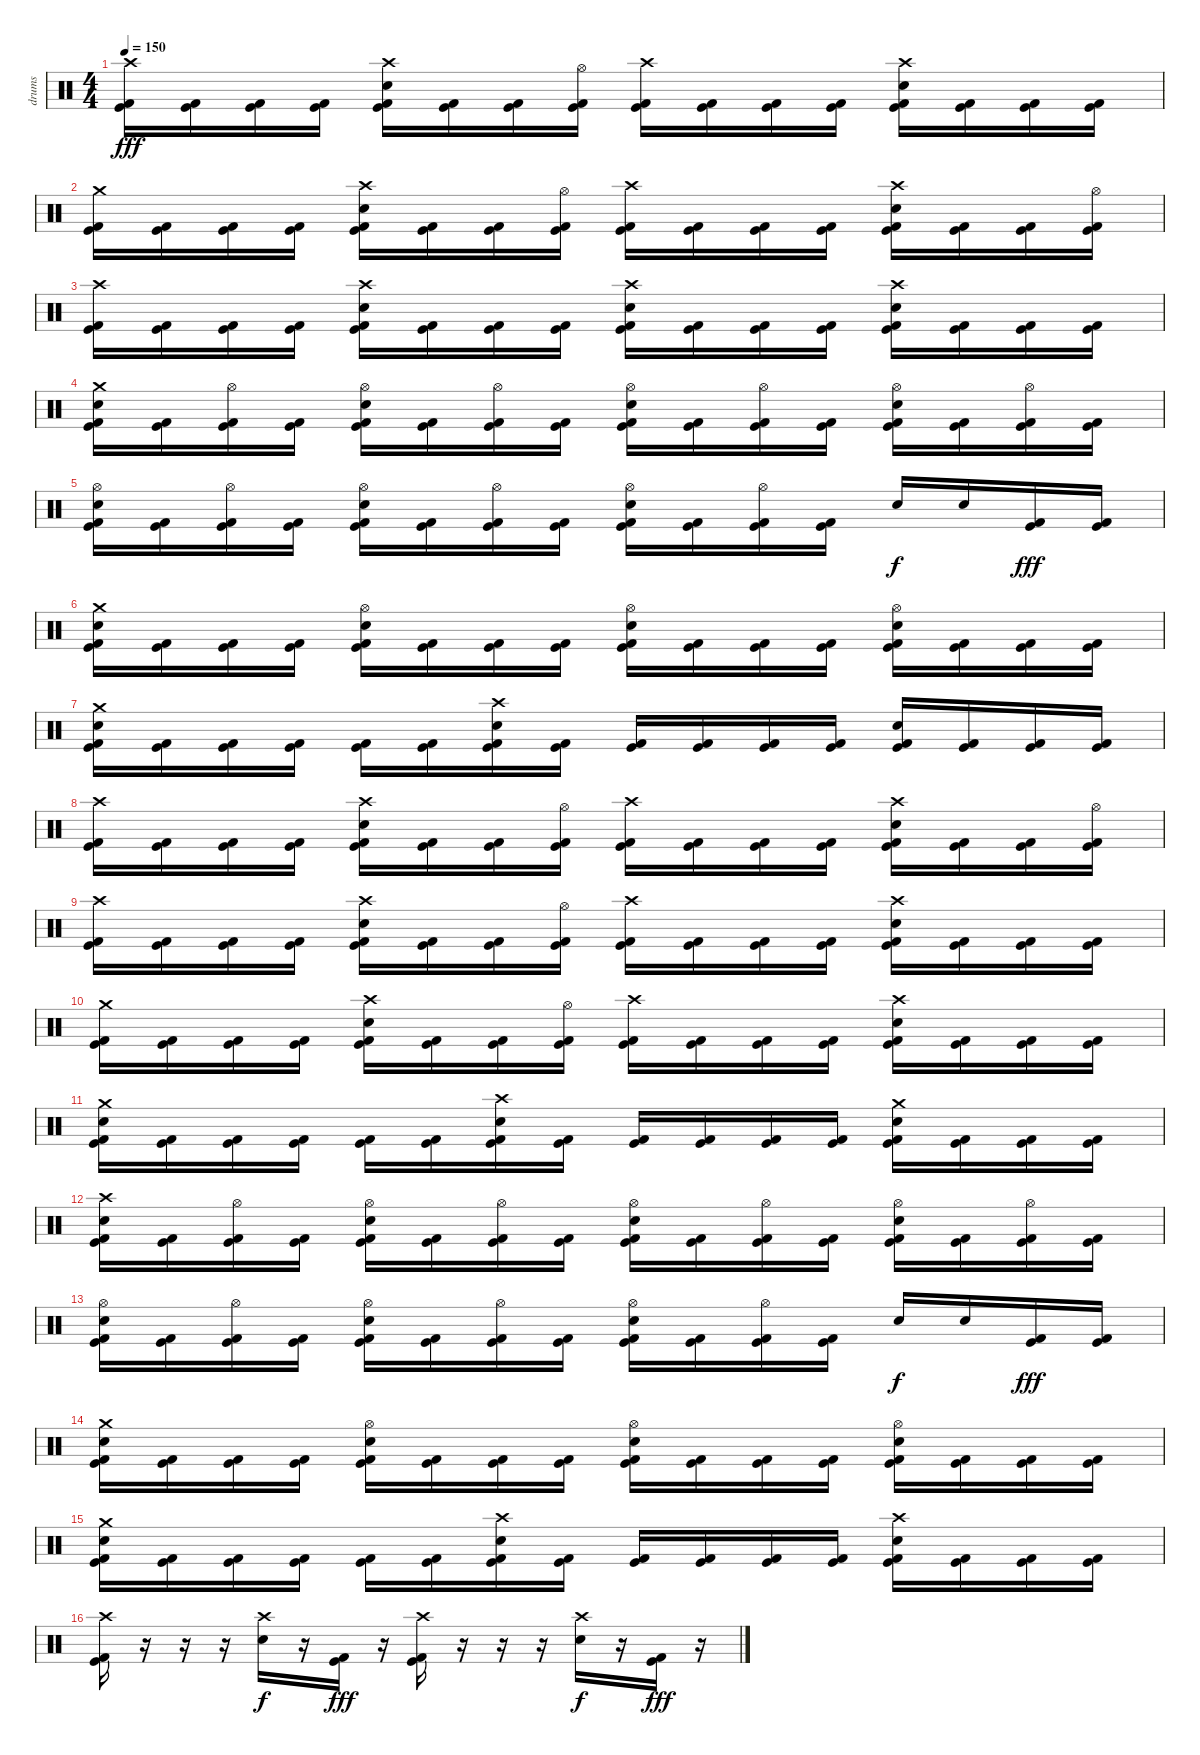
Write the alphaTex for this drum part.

\track ("drums" "drums") {instrument percussion}
\staff {score}
\articulation defaults
\ts (4 4)
\tempo 150
\clef neutral
\ks c
("Crash high (hit)" "Kick (hit)" "Kick (hit) 2").16{dy fff} ("Kick (hit)" "Kick (hit) 2").16 ("Kick (hit)" "Kick (hit) 2").16 ("Kick (hit)" "Kick (hit) 2").16 ("Crash high (hit)" "Electric Snare (hit)" "Kick (hit)" "Kick (hit) 2").16 ("Kick (hit)" "Kick (hit) 2").16 ("Kick (hit)" "Kick (hit) 2").16 ("Hi-Hat (open)" "Kick (hit)" "Kick (hit) 2").16 ("Crash high (hit)" "Kick (hit)" "Kick (hit) 2").16 ("Kick (hit)" "Kick (hit) 2").16 ("Kick (hit)" "Kick (hit) 2").16 ("Kick (hit)" "Kick (hit) 2").16 ("Crash high (hit)" "Electric Snare (hit)" "Kick (hit)" "Kick (hit) 2").16 ("Kick (hit)" "Kick (hit) 2").16 ("Kick (hit)" "Kick (hit) 2").16 ("Kick (hit)" "Kick (hit) 2").16 |
("Crash medium (hit)" "Kick (hit)" "Kick (hit) 2").16 ("Kick (hit)" "Kick (hit) 2").16 ("Kick (hit)" "Kick (hit) 2").16 ("Kick (hit)" "Kick (hit) 2").16 ("Crash high (hit)" "Electric Snare (hit)" "Kick (hit)" "Kick (hit) 2").16 ("Kick (hit)" "Kick (hit) 2").16 ("Kick (hit)" "Kick (hit) 2").16 ("Hi-Hat (open)" "Kick (hit)" "Kick (hit) 2").16 ("Crash high (hit)" "Kick (hit)" "Kick (hit) 2").16 ("Kick (hit)" "Kick (hit) 2").16 ("Kick (hit)" "Kick (hit) 2").16 ("Kick (hit)" "Kick (hit) 2").16 ("Crash high (hit)" "Electric Snare (hit)" "Kick (hit)" "Kick (hit) 2").16 ("Kick (hit)" "Kick (hit) 2").16 ("Kick (hit)" "Kick (hit) 2").16 ("Hi-Hat (open)" "Kick (hit)" "Kick (hit) 2").16 |
("Crash high (hit)" "Kick (hit)" "Kick (hit) 2").16 ("Kick (hit)" "Kick (hit) 2").16 ("Kick (hit)" "Kick (hit) 2").16 ("Kick (hit)" "Kick (hit) 2").16 ("Crash high (hit)" "Electric Snare (hit)" "Kick (hit)" "Kick (hit) 2").16 ("Kick (hit)" "Kick (hit) 2").16 ("Kick (hit)" "Kick (hit) 2").16 ("Kick (hit)" "Kick (hit) 2").16 ("Crash high (hit)" "Electric Snare (hit)" "Kick (hit)" "Kick (hit) 2").16 ("Kick (hit)" "Kick (hit) 2").16 ("Kick (hit)" "Kick (hit) 2").16 ("Kick (hit)" "Kick (hit) 2").16 ("Crash high (hit)" "Electric Snare (hit)" "Kick (hit)" "Kick (hit) 2").16 ("Kick (hit)" "Kick (hit) 2").16 ("Kick (hit)" "Kick (hit) 2").16 ("Kick (hit)" "Kick (hit) 2").16 |
("Crash medium (hit)" "Electric Snare (hit)" "Kick (hit)" "Kick (hit) 2").16 ("Kick (hit)" "Kick (hit) 2").16 ("Hi-Hat (open)" "Kick (hit)" "Kick (hit) 2").16 ("Kick (hit)" "Kick (hit) 2").16 ("Hi-Hat (open)" "Electric Snare (hit)" "Kick (hit)" "Kick (hit) 2").16 ("Kick (hit)" "Kick (hit) 2").16 ("Hi-Hat (open)" "Kick (hit)" "Kick (hit) 2").16 ("Kick (hit)" "Kick (hit) 2").16 ("Hi-Hat (open)" "Electric Snare (hit)" "Kick (hit)" "Kick (hit) 2").16 ("Kick (hit)" "Kick (hit) 2").16 ("Hi-Hat (open)" "Kick (hit)" "Kick (hit) 2").16 ("Kick (hit)" "Kick (hit) 2").16 ("Hi-Hat (open)" "Electric Snare (hit)" "Kick (hit)" "Kick (hit) 2").16 ("Kick (hit)" "Kick (hit) 2").16 ("Hi-Hat (open)" "Kick (hit)" "Kick (hit) 2").16 ("Kick (hit)" "Kick (hit) 2").16 |
("Hi-Hat (open)" "Electric Snare (hit)" "Kick (hit)" "Kick (hit) 2").16 ("Kick (hit)" "Kick (hit) 2").16 ("Hi-Hat (open)" "Kick (hit)" "Kick (hit) 2").16 ("Kick (hit)" "Kick (hit) 2").16 ("Hi-Hat (open)" "Electric Snare (hit)" "Kick (hit)" "Kick (hit) 2").16 ("Kick (hit)" "Kick (hit) 2").16 ("Hi-Hat (open)" "Kick (hit)" "Kick (hit) 2").16 ("Kick (hit)" "Kick (hit) 2").16 ("Hi-Hat (open)" "Electric Snare (hit)" "Kick (hit)" "Kick (hit) 2").16 ("Kick (hit)" "Kick (hit) 2").16 ("Hi-Hat (open)" "Kick (hit)" "Kick (hit) 2").16 ("Kick (hit)" "Kick (hit) 2").16 "Electric Snare (hit)".16{dy f} "Electric Snare (hit)".16 ("Kick (hit)" "Kick (hit) 2").16{dy fff} ("Kick (hit)" "Kick (hit) 2").16 |
("Crash medium (hit)" "Electric Snare (hit)" "Kick (hit)" "Kick (hit) 2").16 ("Kick (hit)" "Kick (hit) 2").16 ("Kick (hit)" "Kick (hit) 2").16 ("Kick (hit)" "Kick (hit) 2").16 ("Hi-Hat (open)" "Electric Snare (hit)" "Kick (hit)" "Kick (hit) 2").16 ("Kick (hit)" "Kick (hit) 2").16 ("Kick (hit)" "Kick (hit) 2").16 ("Kick (hit)" "Kick (hit) 2").16 ("Hi-Hat (open)" "Electric Snare (hit)" "Kick (hit)" "Kick (hit) 2").16 ("Kick (hit)" "Kick (hit) 2").16 ("Kick (hit)" "Kick (hit) 2").16 ("Kick (hit)" "Kick (hit) 2").16 ("Hi-Hat (open)" "Electric Snare (hit)" "Kick (hit)" "Kick (hit) 2").16 ("Kick (hit)" "Kick (hit) 2").16 ("Kick (hit)" "Kick (hit) 2").16 ("Kick (hit)" "Kick (hit) 2").16 |
("Crash medium (hit)" "Electric Snare (hit)" "Kick (hit)" "Kick (hit) 2").16 ("Kick (hit)" "Kick (hit) 2").16 ("Kick (hit)" "Kick (hit) 2").16 ("Kick (hit)" "Kick (hit) 2").16 ("Kick (hit)" "Kick (hit) 2").16 ("Kick (hit)" "Kick (hit) 2").16 ("Crash high (hit)" "Electric Snare (hit)" "Kick (hit)" "Kick (hit) 2").16 ("Kick (hit)" "Kick (hit) 2").16 ("Kick (hit)" "Kick (hit) 2").16 ("Kick (hit)" "Kick (hit) 2").16 ("Kick (hit)" "Kick (hit) 2").16 ("Kick (hit)" "Kick (hit) 2").16 ("Electric Snare (hit)" "Kick (hit)" "Kick (hit) 2").16 ("Kick (hit)" "Kick (hit) 2").16 ("Kick (hit)" "Kick (hit) 2").16 ("Kick (hit)" "Kick (hit) 2").16 |
("Crash high (hit)" "Kick (hit)" "Kick (hit) 2").16 ("Kick (hit)" "Kick (hit) 2").16 ("Kick (hit)" "Kick (hit) 2").16 ("Kick (hit)" "Kick (hit) 2").16 ("Crash high (hit)" "Electric Snare (hit)" "Kick (hit)" "Kick (hit) 2").16 ("Kick (hit)" "Kick (hit) 2").16 ("Kick (hit)" "Kick (hit) 2").16 ("Hi-Hat (open)" "Kick (hit)" "Kick (hit) 2").16 ("Crash high (hit)" "Kick (hit)" "Kick (hit) 2").16 ("Kick (hit)" "Kick (hit) 2").16 ("Kick (hit)" "Kick (hit) 2").16 ("Kick (hit)" "Kick (hit) 2").16 ("Crash high (hit)" "Electric Snare (hit)" "Kick (hit)" "Kick (hit) 2").16 ("Kick (hit)" "Kick (hit) 2").16 ("Kick (hit)" "Kick (hit) 2").16 ("Hi-Hat (open)" "Kick (hit)" "Kick (hit) 2").16 |
("Crash high (hit)" "Kick (hit)" "Kick (hit) 2").16 ("Kick (hit)" "Kick (hit) 2").16 ("Kick (hit)" "Kick (hit) 2").16 ("Kick (hit)" "Kick (hit) 2").16 ("Crash high (hit)" "Electric Snare (hit)" "Kick (hit)" "Kick (hit) 2").16 ("Kick (hit)" "Kick (hit) 2").16 ("Kick (hit)" "Kick (hit) 2").16 ("Hi-Hat (open)" "Kick (hit)" "Kick (hit) 2").16 ("Crash high (hit)" "Kick (hit)" "Kick (hit) 2").16 ("Kick (hit)" "Kick (hit) 2").16 ("Kick (hit)" "Kick (hit) 2").16 ("Kick (hit)" "Kick (hit) 2").16 ("Crash high (hit)" "Electric Snare (hit)" "Kick (hit)" "Kick (hit) 2").16 ("Kick (hit)" "Kick (hit) 2").16 ("Kick (hit)" "Kick (hit) 2").16 ("Kick (hit)" "Kick (hit) 2").16 |
("Crash medium (hit)" "Kick (hit)" "Kick (hit) 2").16 ("Kick (hit)" "Kick (hit) 2").16 ("Kick (hit)" "Kick (hit) 2").16 ("Kick (hit)" "Kick (hit) 2").16 ("Crash high (hit)" "Electric Snare (hit)" "Kick (hit)" "Kick (hit) 2").16 ("Kick (hit)" "Kick (hit) 2").16 ("Kick (hit)" "Kick (hit) 2").16 ("Hi-Hat (open)" "Kick (hit)" "Kick (hit) 2").16 ("Crash high (hit)" "Kick (hit)" "Kick (hit) 2").16 ("Kick (hit)" "Kick (hit) 2").16 ("Kick (hit)" "Kick (hit) 2").16 ("Kick (hit)" "Kick (hit) 2").16 ("Crash high (hit)" "Electric Snare (hit)" "Kick (hit)" "Kick (hit) 2").16 ("Kick (hit)" "Kick (hit) 2").16 ("Kick (hit)" "Kick (hit) 2").16 ("Kick (hit)" "Kick (hit) 2").16 |
("Crash medium (hit)" "Electric Snare (hit)" "Kick (hit)" "Kick (hit) 2").16 ("Kick (hit)" "Kick (hit) 2").16 ("Kick (hit)" "Kick (hit) 2").16 ("Kick (hit)" "Kick (hit) 2").16 ("Kick (hit)" "Kick (hit) 2").16 ("Kick (hit)" "Kick (hit) 2").16 ("Crash high (hit)" "Electric Snare (hit)" "Kick (hit)" "Kick (hit) 2").16 ("Kick (hit)" "Kick (hit) 2").16 ("Kick (hit)" "Kick (hit) 2").16 ("Kick (hit)" "Kick (hit) 2").16 ("Kick (hit)" "Kick (hit) 2").16 ("Kick (hit)" "Kick (hit) 2").16 ("Crash medium (hit)" "Electric Snare (hit)" "Kick (hit)" "Kick (hit) 2").16 ("Kick (hit)" "Kick (hit) 2").16 ("Kick (hit)" "Kick (hit) 2").16 ("Kick (hit)" "Kick (hit) 2").16 |
("Crash high (hit)" "Electric Snare (hit)" "Kick (hit)" "Kick (hit) 2").16 ("Kick (hit)" "Kick (hit) 2").16 ("Hi-Hat (open)" "Kick (hit)" "Kick (hit) 2").16 ("Kick (hit)" "Kick (hit) 2").16 ("Hi-Hat (open)" "Electric Snare (hit)" "Kick (hit)" "Kick (hit) 2").16 ("Kick (hit)" "Kick (hit) 2").16 ("Hi-Hat (open)" "Kick (hit)" "Kick (hit) 2").16 ("Kick (hit)" "Kick (hit) 2").16 ("Hi-Hat (open)" "Electric Snare (hit)" "Kick (hit)" "Kick (hit) 2").16 ("Kick (hit)" "Kick (hit) 2").16 ("Hi-Hat (open)" "Kick (hit)" "Kick (hit) 2").16 ("Kick (hit)" "Kick (hit) 2").16 ("Hi-Hat (open)" "Electric Snare (hit)" "Kick (hit)" "Kick (hit) 2").16 ("Kick (hit)" "Kick (hit) 2").16 ("Hi-Hat (open)" "Kick (hit)" "Kick (hit) 2").16 ("Kick (hit)" "Kick (hit) 2").16 |
("Hi-Hat (open)" "Electric Snare (hit)" "Kick (hit)" "Kick (hit) 2").16 ("Kick (hit)" "Kick (hit) 2").16 ("Hi-Hat (open)" "Kick (hit)" "Kick (hit) 2").16 ("Kick (hit)" "Kick (hit) 2").16 ("Hi-Hat (open)" "Electric Snare (hit)" "Kick (hit)" "Kick (hit) 2").16 ("Kick (hit)" "Kick (hit) 2").16 ("Hi-Hat (open)" "Kick (hit)" "Kick (hit) 2").16 ("Kick (hit)" "Kick (hit) 2").16 ("Hi-Hat (open)" "Electric Snare (hit)" "Kick (hit)" "Kick (hit) 2").16 ("Kick (hit)" "Kick (hit) 2").16 ("Hi-Hat (open)" "Kick (hit)" "Kick (hit) 2").16 ("Kick (hit)" "Kick (hit) 2").16 "Electric Snare (hit)".16{dy f} "Electric Snare (hit)".16 ("Kick (hit)" "Kick (hit) 2").16{dy fff} ("Kick (hit)" "Kick (hit) 2").16 |
("Crash medium (hit)" "Electric Snare (hit)" "Kick (hit)" "Kick (hit) 2").16 ("Kick (hit)" "Kick (hit) 2").16 ("Kick (hit)" "Kick (hit) 2").16 ("Kick (hit)" "Kick (hit) 2").16 ("Hi-Hat (open)" "Electric Snare (hit)" "Kick (hit)" "Kick (hit) 2").16 ("Kick (hit)" "Kick (hit) 2").16 ("Kick (hit)" "Kick (hit) 2").16 ("Kick (hit)" "Kick (hit) 2").16 ("Hi-Hat (open)" "Electric Snare (hit)" "Kick (hit)" "Kick (hit) 2").16 ("Kick (hit)" "Kick (hit) 2").16 ("Kick (hit)" "Kick (hit) 2").16 ("Kick (hit)" "Kick (hit) 2").16 ("Hi-Hat (open)" "Electric Snare (hit)" "Kick (hit)" "Kick (hit) 2").16 ("Kick (hit)" "Kick (hit) 2").16 ("Kick (hit)" "Kick (hit) 2").16 ("Kick (hit)" "Kick (hit) 2").16 |
("Crash medium (hit)" "Electric Snare (hit)" "Kick (hit)" "Kick (hit) 2").16 ("Kick (hit)" "Kick (hit) 2").16 ("Kick (hit)" "Kick (hit) 2").16 ("Kick (hit)" "Kick (hit) 2").16 ("Kick (hit)" "Kick (hit) 2").16 ("Kick (hit)" "Kick (hit) 2").16 ("Crash high (hit)" "Electric Snare (hit)" "Kick (hit)" "Kick (hit) 2").16 ("Kick (hit)" "Kick (hit) 2").16 ("Kick (hit)" "Kick (hit) 2").16 ("Kick (hit)" "Kick (hit) 2").16 ("Kick (hit)" "Kick (hit) 2").16 ("Kick (hit)" "Kick (hit) 2").16 ("Crash high (hit)" "Electric Snare (hit)" "Kick (hit)" "Kick (hit) 2").16 ("Kick (hit)" "Kick (hit) 2").16 ("Kick (hit)" "Kick (hit) 2").16 ("Kick (hit)" "Kick (hit) 2").16 |
("Crash high (hit)" "Kick (hit)" "Kick (hit) 2").16 r.16 r.16 r.16 ("Crash high (hit)" "Electric Snare (hit)").16{dy f} r.16 ("Kick (hit)" "Kick (hit) 2").16{dy fff} r.16 ("Crash high (hit)" "Kick (hit)" "Kick (hit) 2").16 r.16 r.16 r.16 ("Crash high (hit)" "Electric Snare (hit)").16{dy f} r.16 ("Kick (hit)" "Kick (hit) 2").16{dy fff} r.16
